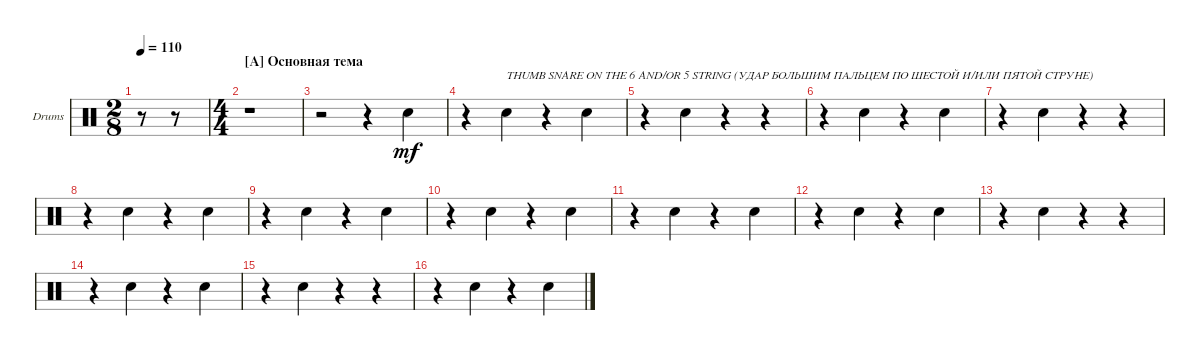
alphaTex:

\defaultSystemsLayout 4
\bracketExtendMode groupsimilarinstruments
\firstSystemTrackNameOrientation horizontal
\otherSystemsTrackNameOrientation horizontal
\track ("Drumkit" "Drums") {instrument percussion}
\staff {score}
\articulation defaults
\ts (2 8)
\tempo 110
\clef neutral
\scale
0.390805
\ks c
r.8{dy mf} r.8 |
\ts (4 4)
\section ("A" "Основная тема")
\scale
0.390805 r.1 |
\scale
0.218391 r.2 r.4 "Snare (hit) 2".4 |
\scale
0.333333 r.4 "Snare (hit) 2".4{txt "THUMB SNARE ON THE 6 AND/OR 5 STRING (УДАР БОЛЬШИМ ПАЛЬЦЕМ ПО ШЕСТОЙ И/ИЛИ ПЯТОЙ СТРУНЕ)"} r.4 "Snare (hit) 2".4 |
\scale
0.333333 r.4 "Snare (hit) 2".4 r.4 r.4 |
\scale
0.333333 r.4 "Snare (hit) 2".4 r.4 "Snare (hit) 2".4 |
r.4 "Snare (hit) 2".4 r.4 r.4 |
r.4 "Snare (hit) 2".4 r.4 "Snare (hit) 2".4 |
r.4 "Snare (hit) 2".4 r.4 "Snare (hit) 2".4 |
r.4 "Snare (hit) 2".4 r.4 "Snare (hit) 2".4 |
r.4 "Snare (hit) 2".4 r.4 "Snare (hit) 2".4 |
r.4 "Snare (hit) 2".4 r.4 "Snare (hit) 2".4 |
r.4 "Snare (hit) 2".4 r.4 r.4 |
r.4 "Snare (hit) 2".4 r.4 "Snare (hit) 2".4 |
r.4 "Snare (hit) 2".4 r.4 r.4 |
r.4 "Snare (hit) 2".4 r.4 "Snare (hit) 2".4
